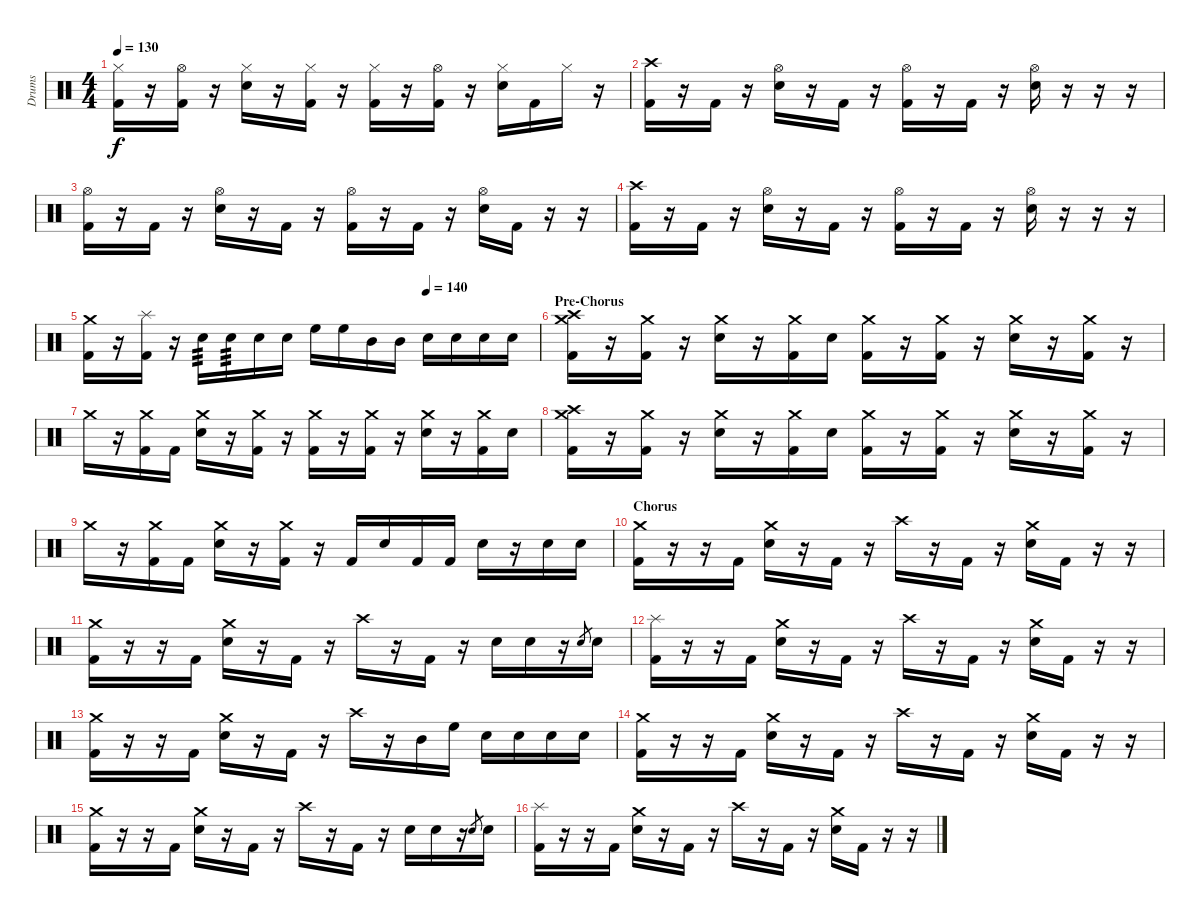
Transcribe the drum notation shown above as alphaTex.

\track ("Drums" "Drums") {instrument percussion}
\staff {score}
\articulation defaults
\ts (4 4)
\tempo 130
\clef neutral
\ks c
("Hi-Hat (closed)" "Kick (hit) 2").16{dy f} r.16 ("Hi-Hat (open)" "Kick (hit) 2").16 r.16 ("Hi-Hat (closed)" "Electric Snare (hit)").16 r.16 ("Hi-Hat (closed)" "Kick (hit) 2").16 r.16 ("Hi-Hat (closed)" "Kick (hit) 2").16 r.16 ("Hi-Hat (open)" "Kick (hit) 2").16 r.16 ("Hi-Hat (closed)" "Electric Snare (hit)").16 "Kick (hit) 2".16 "Hi-Hat (closed)".16 r.16 |
("Crash high (hit)" "Kick (hit) 2").16 r.16 "Kick (hit) 2".16 r.16 ("Hi-Hat (open)" "Electric Snare (hit)").16 r.16 "Kick (hit) 2".16 r.16 ("Hi-Hat (open)" "Kick (hit) 2").16 r.16 "Kick (hit) 2".16 r.16 ("Hi-Hat (open)" "Electric Snare (hit)").16 r.16 r.16 r.16 |
("Hi-Hat (open)" "Kick (hit) 2").16 r.16 "Kick (hit) 2".16 r.16 ("Hi-Hat (open)" "Electric Snare (hit)").16 r.16 "Kick (hit) 2".16 r.16 ("Hi-Hat (open)" "Kick (hit) 2").16 r.16 "Kick (hit) 2".16 r.16 ("Hi-Hat (open)" "Electric Snare (hit)").16 "Kick (hit) 2".16 r.16 r.16 |
("Crash high (hit)" "Kick (hit) 2").16 r.16 "Kick (hit) 2".16 r.16 ("Hi-Hat (open)" "Electric Snare (hit)").16 r.16 "Kick (hit) 2".16 r.16 ("Hi-Hat (open)" "Kick (hit) 2").16 r.16 "Kick (hit) 2".16 r.16 ("Hi-Hat (open)" "Electric Snare (hit)").16 r.16 r.16 r.16 |
\tempo (140 0.75)
("Crash medium (hit)" "Kick (hit) 2").16 r.16 ("Splash (hit)" "Kick (hit) 2").16 r.16 "Electric Snare (hit)".16{tp 3} "Electric Snare (hit)".16{tp 3} "Electric Snare (hit)".16 "Electric Snare (hit)".16 "High Floor Tom (hit)".16 "High Floor Tom (hit)".16 "Mid Tom (hit)".16 "Mid Tom (hit)".16 "Electric Snare (hit)".16 "Electric Snare (hit)".16 "Electric Snare (hit)".16 "Electric Snare (hit)".16 |
\section ("" "Pre-Chorus")
("Crash medium (hit)" "Crash high (hit)" "Kick (hit) 2").16 r.16 ("Crash medium (hit)" "Kick (hit) 2").16 r.16 ("Crash medium (hit)" "Electric Snare (hit)").16 r.16 ("Crash medium (hit)" "Kick (hit) 2").16 "Electric Snare (hit)".16 ("Crash medium (hit)" "Kick (hit) 2").16 r.16 ("Crash medium (hit)" "Kick (hit) 2").16 r.16 ("Crash medium (hit)" "Electric Snare (hit)").16 r.16 ("Crash medium (hit)" "Kick (hit) 2").16 r.16 |
"Crash medium (hit)".16 r.16 ("Crash medium (hit)" "Kick (hit) 2").16 "Kick (hit) 2".16 ("Crash medium (hit)" "Electric Snare (hit)").16 r.16 ("Crash medium (hit)" "Kick (hit) 2").16 r.16 ("Crash medium (hit)" "Kick (hit) 2").16 r.16 ("Crash medium (hit)" "Kick (hit) 2").16 r.16 ("Crash medium (hit)" "Electric Snare (hit)").16 r.16 ("Crash medium (hit)" "Kick (hit) 2").16 "Electric Snare (hit)".16 |
("Crash medium (hit)" "Crash high (hit)" "Kick (hit) 2").16 r.16 ("Crash medium (hit)" "Kick (hit) 2").16 r.16 ("Crash medium (hit)" "Electric Snare (hit)").16 r.16 ("Crash medium (hit)" "Kick (hit) 2").16 "Electric Snare (hit)".16 ("Crash medium (hit)" "Kick (hit) 2").16 r.16 ("Crash medium (hit)" "Kick (hit) 2").16 r.16 ("Crash medium (hit)" "Electric Snare (hit)").16 r.16 ("Crash medium (hit)" "Kick (hit) 2").16 r.16 |
"Crash medium (hit)".16 r.16 ("Crash medium (hit)" "Kick (hit) 2").16 "Kick (hit) 2".16 ("Crash medium (hit)" "Electric Snare (hit)").16 r.16 ("Crash medium (hit)" "Kick (hit) 2").16 r.16 "Kick (hit) 2".16 "Electric Snare (hit)".16 "Kick (hit) 2".16 "Kick (hit) 2".16 "Electric Snare (hit)".16 r.16 "Electric Snare (hit)".16 "Electric Snare (hit)".16 |
\section ("" "Chorus")
("Crash medium (hit)" "Kick (hit) 2").16 r.16 r.16 "Kick (hit) 2".16 ("Crash medium (hit)" "Electric Snare (hit)").16 r.16 "Kick (hit) 2".16 r.16 "Crash high (hit)".16 r.16 "Kick (hit) 2".16 r.16 ("Crash medium (hit)" "Electric Snare (hit)").16 "Kick (hit) 2".16 r.16 r.16 |
("Crash medium (hit)" "Kick (hit) 2").16 r.16 r.16 "Kick (hit) 2".16 ("Crash medium (hit)" "Electric Snare (hit)").16 r.16 "Kick (hit) 2".16 r.16 "Crash high (hit)".16 r.16 "Kick (hit) 2".16 r.16 "Electric Snare (hit)".16 "Electric Snare (hit)".16 r.16 "Electric Snare (hit)".8{gr} "Electric Snare (hit)".16 |
("Splash (hit)" "Kick (hit) 2").16 r.16 r.16 "Kick (hit) 2".16 ("Crash medium (hit)" "Electric Snare (hit)").16 r.16 "Kick (hit) 2".16 r.16 "Crash high (hit)".16 r.16 "Kick (hit) 2".16 r.16 ("Crash medium (hit)" "Electric Snare (hit)").16 "Kick (hit) 2".16 r.16 r.16 |
("Crash medium (hit)" "Kick (hit) 2").16 r.16 r.16 "Kick (hit) 2".16 ("Crash medium (hit)" "Electric Snare (hit)").16 r.16 "Kick (hit) 2".16 r.16 "Crash high (hit)".16 r.16 "Mid Tom (hit)".16 "High Floor Tom (hit)".16 "Electric Snare (hit)".16 "Electric Snare (hit)".16 "Electric Snare (hit)".16 "Electric Snare (hit)".16 |
("Crash medium (hit)" "Kick (hit) 2").16 r.16 r.16 "Kick (hit) 2".16 ("Crash medium (hit)" "Electric Snare (hit)").16 r.16 "Kick (hit) 2".16 r.16 "Crash high (hit)".16 r.16 "Kick (hit) 2".16 r.16 ("Crash medium (hit)" "Electric Snare (hit)").16 "Kick (hit) 2".16 r.16 r.16 |
("Crash medium (hit)" "Kick (hit) 2").16 r.16 r.16 "Kick (hit) 2".16 ("Crash medium (hit)" "Electric Snare (hit)").16 r.16 "Kick (hit) 2".16 r.16 "Crash high (hit)".16 r.16 "Kick (hit) 2".16 r.16 "Electric Snare (hit)".16 "Electric Snare (hit)".16 r.16 "Electric Snare (hit)".8{gr} "Electric Snare (hit)".16 |
("Splash (hit)" "Kick (hit) 2").16 r.16 r.16 "Kick (hit) 2".16 ("Crash medium (hit)" "Electric Snare (hit)").16 r.16 "Kick (hit) 2".16 r.16 "Crash high (hit)".16 r.16 "Kick (hit) 2".16 r.16 ("Crash medium (hit)" "Electric Snare (hit)").16 "Kick (hit) 2".16 r.16 r.16
